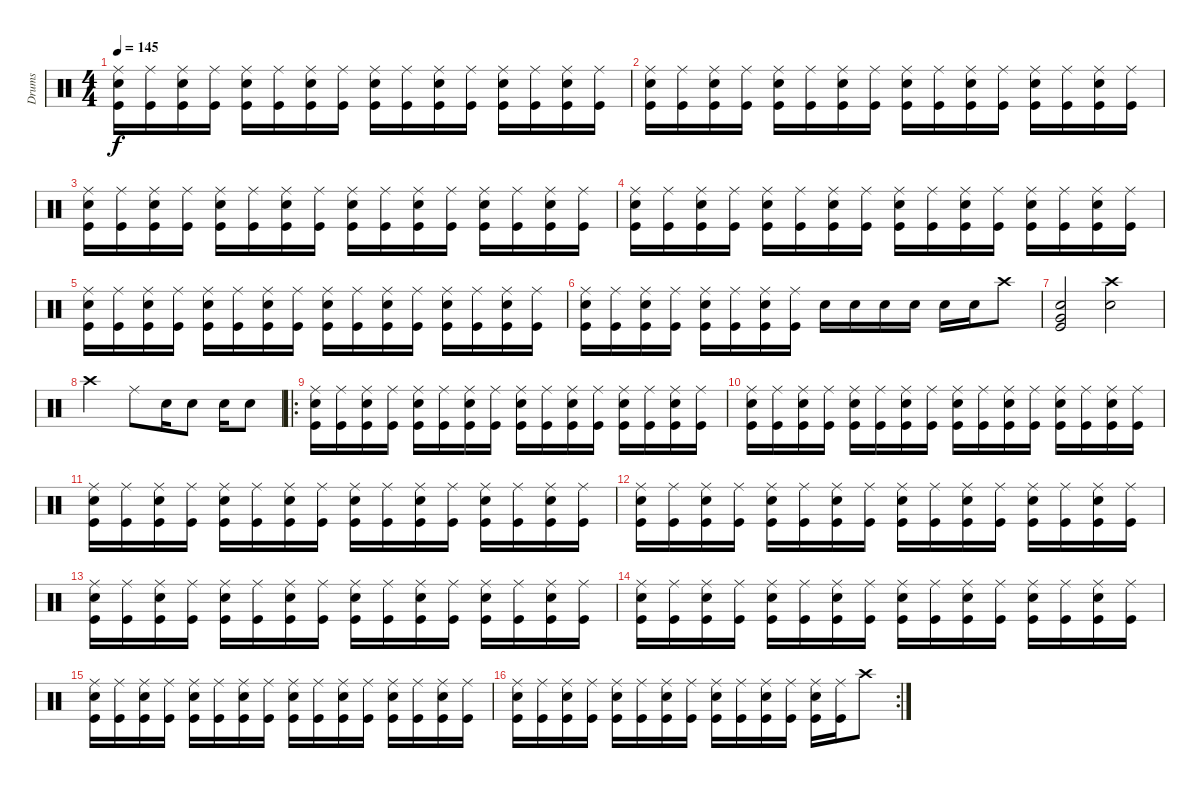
\track ("Drums" "Drums") {instrument percussion}
\staff
\articulation defaults
\ts (4 4)
\tempo 145
\clef neutral
\ks c
("Kick (hit)" "Electric Snare (hit)" "Ride (middle)").16{dy f} ("Kick (hit)" "Ride (middle)").16 ("Kick (hit)" "Electric Snare (hit)" "Ride (middle)").16 ("Kick (hit)" "Ride (middle)").16 ("Kick (hit)" "Electric Snare (hit)" "Ride (middle)").16 ("Kick (hit)" "Ride (middle)").16 ("Kick (hit)" "Electric Snare (hit)" "Ride (middle)").16 ("Kick (hit)" "Ride (middle)").16 ("Kick (hit)" "Electric Snare (hit)" "Ride (middle)").16 ("Kick (hit)" "Ride (middle)").16 ("Kick (hit)" "Electric Snare (hit)" "Ride (middle)").16 ("Kick (hit)" "Ride (middle)").16 ("Kick (hit)" "Electric Snare (hit)" "Ride (middle)").16 ("Kick (hit)" "Ride (middle)").16 ("Kick (hit)" "Electric Snare (hit)" "Ride (middle)").16 ("Kick (hit)" "Ride (middle)").16 |
("Kick (hit)" "Electric Snare (hit)" "Ride (middle)").16 ("Kick (hit)" "Ride (middle)").16 ("Kick (hit)" "Electric Snare (hit)" "Ride (middle)").16 ("Kick (hit)" "Ride (middle)").16 ("Kick (hit)" "Electric Snare (hit)" "Ride (middle)").16 ("Kick (hit)" "Ride (middle)").16 ("Kick (hit)" "Electric Snare (hit)" "Ride (middle)").16 ("Kick (hit)" "Ride (middle)").16 ("Kick (hit)" "Electric Snare (hit)" "Ride (middle)").16 ("Kick (hit)" "Ride (middle)").16 ("Kick (hit)" "Electric Snare (hit)" "Ride (middle)").16 ("Kick (hit)" "Ride (middle)").16 ("Kick (hit)" "Electric Snare (hit)" "Ride (middle)").16 ("Kick (hit)" "Ride (middle)").16 ("Kick (hit)" "Electric Snare (hit)" "Ride (middle)").16 ("Kick (hit)" "Ride (middle)").16 |
("Kick (hit)" "Electric Snare (hit)" "Ride (middle)").16 ("Kick (hit)" "Ride (middle)").16 ("Kick (hit)" "Electric Snare (hit)" "Ride (middle)").16 ("Kick (hit)" "Ride (middle)").16 ("Kick (hit)" "Electric Snare (hit)" "Ride (middle)").16 ("Kick (hit)" "Ride (middle)").16 ("Kick (hit)" "Electric Snare (hit)" "Ride (middle)").16 ("Kick (hit)" "Ride (middle)").16 ("Kick (hit)" "Electric Snare (hit)" "Ride (middle)").16 ("Kick (hit)" "Ride (middle)").16 ("Kick (hit)" "Electric Snare (hit)" "Ride (middle)").16 ("Kick (hit)" "Ride (middle)").16 ("Kick (hit)" "Electric Snare (hit)" "Ride (middle)").16 ("Kick (hit)" "Ride (middle)").16 ("Kick (hit)" "Electric Snare (hit)" "Ride (middle)").16 ("Kick (hit)" "Ride (middle)").16 |
("Kick (hit)" "Electric Snare (hit)" "Ride (middle)").16 ("Kick (hit)" "Ride (middle)").16 ("Kick (hit)" "Electric Snare (hit)" "Ride (middle)").16 ("Kick (hit)" "Ride (middle)").16 ("Kick (hit)" "Electric Snare (hit)" "Ride (middle)").16 ("Kick (hit)" "Ride (middle)").16 ("Kick (hit)" "Electric Snare (hit)" "Ride (middle)").16 ("Kick (hit)" "Ride (middle)").16 ("Kick (hit)" "Electric Snare (hit)" "Ride (middle)").16 ("Kick (hit)" "Ride (middle)").16 ("Kick (hit)" "Electric Snare (hit)" "Ride (middle)").16 ("Kick (hit)" "Ride (middle)").16 ("Kick (hit)" "Electric Snare (hit)" "Ride (middle)").16 ("Kick (hit)" "Ride (middle)").16 ("Kick (hit)" "Electric Snare (hit)" "Ride (middle)").16 ("Kick (hit)" "Ride (middle)").16 |
("Kick (hit)" "Electric Snare (hit)" "Ride (middle)").16 ("Kick (hit)" "Ride (middle)").16 ("Kick (hit)" "Electric Snare (hit)" "Ride (middle)").16 ("Kick (hit)" "Ride (middle)").16 ("Kick (hit)" "Electric Snare (hit)" "Ride (middle)").16 ("Kick (hit)" "Ride (middle)").16 ("Kick (hit)" "Electric Snare (hit)" "Ride (middle)").16 ("Kick (hit)" "Ride (middle)").16 ("Kick (hit)" "Electric Snare (hit)" "Ride (middle)").16 ("Kick (hit)" "Ride (middle)").16 ("Kick (hit)" "Electric Snare (hit)" "Ride (middle)").16 ("Kick (hit)" "Ride (middle)").16 ("Kick (hit)" "Electric Snare (hit)" "Ride (middle)").16 ("Kick (hit)" "Ride (middle)").16 ("Kick (hit)" "Electric Snare (hit)" "Ride (middle)").16 ("Kick (hit)" "Ride (middle)").16 |
("Kick (hit)" "Electric Snare (hit)" "Ride (middle)").16 ("Kick (hit)" "Ride (middle)").16 ("Kick (hit)" "Electric Snare (hit)" "Ride (middle)").16 ("Kick (hit)" "Ride (middle)").16 ("Kick (hit)" "Electric Snare (hit)" "Ride (middle)").16 ("Kick (hit)" "Ride (middle)").16 ("Kick (hit)" "Electric Snare (hit)" "Ride (middle)").16 ("Kick (hit)" "Ride (middle)").16 "Electric Snare (hit)".16 "Electric Snare (hit)".16 "Electric Snare (hit)".16 "Electric Snare (hit)".16 "Electric Snare (hit)".16 "Electric Snare (hit)".16 "Crash high (hit)".8 |
("Kick (hit)" "Very Low Tom (hit)" "Electric Snare (hit)").2 ("Electric Snare (hit)" "Crash high (hit)").2 |
"Crash high (hit)".2 "Ride (middle)".8 "Electric Snare (hit)".16 "Electric Snare (hit)".8 "Electric Snare (hit)".16 "Electric Snare (hit)".8 |
\ro
("Kick (hit)" "Electric Snare (hit)" "Ride (middle)").16 ("Kick (hit)" "Ride (middle)").16 ("Kick (hit)" "Electric Snare (hit)" "Ride (middle)").16 ("Kick (hit)" "Ride (middle)").16 ("Kick (hit)" "Electric Snare (hit)" "Ride (middle)").16 ("Kick (hit)" "Ride (middle)").16 ("Kick (hit)" "Electric Snare (hit)" "Ride (middle)").16 ("Kick (hit)" "Ride (middle)").16 ("Kick (hit)" "Electric Snare (hit)" "Ride (middle)").16 ("Kick (hit)" "Ride (middle)").16 ("Kick (hit)" "Electric Snare (hit)" "Ride (middle)").16 ("Kick (hit)" "Ride (middle)").16 ("Kick (hit)" "Electric Snare (hit)" "Ride (middle)").16 ("Kick (hit)" "Ride (middle)").16 ("Kick (hit)" "Electric Snare (hit)" "Ride (middle)").16 ("Kick (hit)" "Ride (middle)").16 |
("Kick (hit)" "Electric Snare (hit)" "Ride (middle)").16 ("Kick (hit)" "Ride (middle)").16 ("Kick (hit)" "Electric Snare (hit)" "Ride (middle)").16 ("Kick (hit)" "Ride (middle)").16 ("Kick (hit)" "Electric Snare (hit)" "Ride (middle)").16 ("Kick (hit)" "Ride (middle)").16 ("Kick (hit)" "Electric Snare (hit)" "Ride (middle)").16 ("Kick (hit)" "Ride (middle)").16 ("Kick (hit)" "Electric Snare (hit)" "Ride (middle)").16 ("Kick (hit)" "Ride (middle)").16 ("Kick (hit)" "Electric Snare (hit)" "Ride (middle)").16 ("Kick (hit)" "Ride (middle)").16 ("Kick (hit)" "Electric Snare (hit)" "Ride (middle)").16 ("Kick (hit)" "Ride (middle)").16 ("Kick (hit)" "Electric Snare (hit)" "Ride (middle)").16 ("Kick (hit)" "Ride (middle)").16 |
("Kick (hit)" "Electric Snare (hit)" "Ride (middle)").16 ("Kick (hit)" "Ride (middle)").16 ("Kick (hit)" "Electric Snare (hit)" "Ride (middle)").16 ("Kick (hit)" "Ride (middle)").16 ("Kick (hit)" "Electric Snare (hit)" "Ride (middle)").16 ("Kick (hit)" "Ride (middle)").16 ("Kick (hit)" "Electric Snare (hit)" "Ride (middle)").16 ("Kick (hit)" "Ride (middle)").16 ("Kick (hit)" "Electric Snare (hit)" "Ride (middle)").16 ("Kick (hit)" "Ride (middle)").16 ("Kick (hit)" "Electric Snare (hit)" "Ride (middle)").16 ("Kick (hit)" "Ride (middle)").16 ("Kick (hit)" "Electric Snare (hit)" "Ride (middle)").16 ("Kick (hit)" "Ride (middle)").16 ("Kick (hit)" "Electric Snare (hit)" "Ride (middle)").16 ("Kick (hit)" "Ride (middle)").16 |
("Kick (hit)" "Electric Snare (hit)" "Ride (middle)").16 ("Kick (hit)" "Ride (middle)").16 ("Kick (hit)" "Electric Snare (hit)" "Ride (middle)").16 ("Kick (hit)" "Ride (middle)").16 ("Kick (hit)" "Electric Snare (hit)" "Ride (middle)").16 ("Kick (hit)" "Ride (middle)").16 ("Kick (hit)" "Electric Snare (hit)" "Ride (middle)").16 ("Kick (hit)" "Ride (middle)").16 ("Kick (hit)" "Electric Snare (hit)" "Ride (middle)").16 ("Kick (hit)" "Ride (middle)").16 ("Kick (hit)" "Electric Snare (hit)" "Ride (middle)").16 ("Kick (hit)" "Ride (middle)").16 ("Kick (hit)" "Electric Snare (hit)" "Ride (middle)").16 ("Kick (hit)" "Ride (middle)").16 ("Kick (hit)" "Electric Snare (hit)" "Ride (middle)").16 ("Kick (hit)" "Ride (middle)").16 |
("Kick (hit)" "Electric Snare (hit)" "Ride (middle)").16 ("Kick (hit)" "Ride (middle)").16 ("Kick (hit)" "Electric Snare (hit)" "Ride (middle)").16 ("Kick (hit)" "Ride (middle)").16 ("Kick (hit)" "Electric Snare (hit)" "Ride (middle)").16 ("Kick (hit)" "Ride (middle)").16 ("Kick (hit)" "Electric Snare (hit)" "Ride (middle)").16 ("Kick (hit)" "Ride (middle)").16 ("Kick (hit)" "Electric Snare (hit)" "Ride (middle)").16 ("Kick (hit)" "Ride (middle)").16 ("Kick (hit)" "Electric Snare (hit)" "Ride (middle)").16 ("Kick (hit)" "Ride (middle)").16 ("Kick (hit)" "Electric Snare (hit)" "Ride (middle)").16 ("Kick (hit)" "Ride (middle)").16 ("Kick (hit)" "Electric Snare (hit)" "Ride (middle)").16 ("Kick (hit)" "Ride (middle)").16 |
("Kick (hit)" "Electric Snare (hit)" "Ride (middle)").16 ("Kick (hit)" "Ride (middle)").16 ("Kick (hit)" "Electric Snare (hit)" "Ride (middle)").16 ("Kick (hit)" "Ride (middle)").16 ("Kick (hit)" "Electric Snare (hit)" "Ride (middle)").16 ("Kick (hit)" "Ride (middle)").16 ("Kick (hit)" "Electric Snare (hit)" "Ride (middle)").16 ("Kick (hit)" "Ride (middle)").16 ("Kick (hit)" "Electric Snare (hit)" "Ride (middle)").16 ("Kick (hit)" "Ride (middle)").16 ("Kick (hit)" "Electric Snare (hit)" "Ride (middle)").16 ("Kick (hit)" "Ride (middle)").16 ("Kick (hit)" "Electric Snare (hit)" "Ride (middle)").16 ("Kick (hit)" "Ride (middle)").16 ("Kick (hit)" "Electric Snare (hit)" "Ride (middle)").16 ("Kick (hit)" "Ride (middle)").16 |
("Kick (hit)" "Electric Snare (hit)" "Ride (middle)").16 ("Kick (hit)" "Ride (middle)").16 ("Kick (hit)" "Electric Snare (hit)" "Ride (middle)").16 ("Kick (hit)" "Ride (middle)").16 ("Kick (hit)" "Electric Snare (hit)" "Ride (middle)").16 ("Kick (hit)" "Ride (middle)").16 ("Kick (hit)" "Electric Snare (hit)" "Ride (middle)").16 ("Kick (hit)" "Ride (middle)").16 ("Kick (hit)" "Electric Snare (hit)" "Ride (middle)").16 ("Kick (hit)" "Ride (middle)").16 ("Kick (hit)" "Electric Snare (hit)" "Ride (middle)").16 ("Kick (hit)" "Ride (middle)").16 ("Kick (hit)" "Electric Snare (hit)" "Ride (middle)").16 ("Kick (hit)" "Ride (middle)").16 ("Kick (hit)" "Electric Snare (hit)" "Ride (middle)").16 ("Kick (hit)" "Ride (middle)").16 |
\rc 2
("Kick (hit)" "Electric Snare (hit)" "Ride (middle)").16 ("Kick (hit)" "Ride (middle)").16 ("Kick (hit)" "Electric Snare (hit)" "Ride (middle)").16 ("Kick (hit)" "Ride (middle)").16 ("Kick (hit)" "Electric Snare (hit)" "Ride (middle)").16 ("Kick (hit)" "Ride (middle)").16 ("Kick (hit)" "Electric Snare (hit)" "Ride (middle)").16 ("Kick (hit)" "Ride (middle)").16 ("Kick (hit)" "Electric Snare (hit)" "Ride (middle)").16 ("Kick (hit)" "Ride (middle)").16 ("Kick (hit)" "Electric Snare (hit)" "Ride (middle)").16 ("Kick (hit)" "Ride (middle)").16 ("Kick (hit)" "Electric Snare (hit)" "Ride (middle)").16 ("Kick (hit)" "Ride (middle)").16 "Crash high (hit)".8
